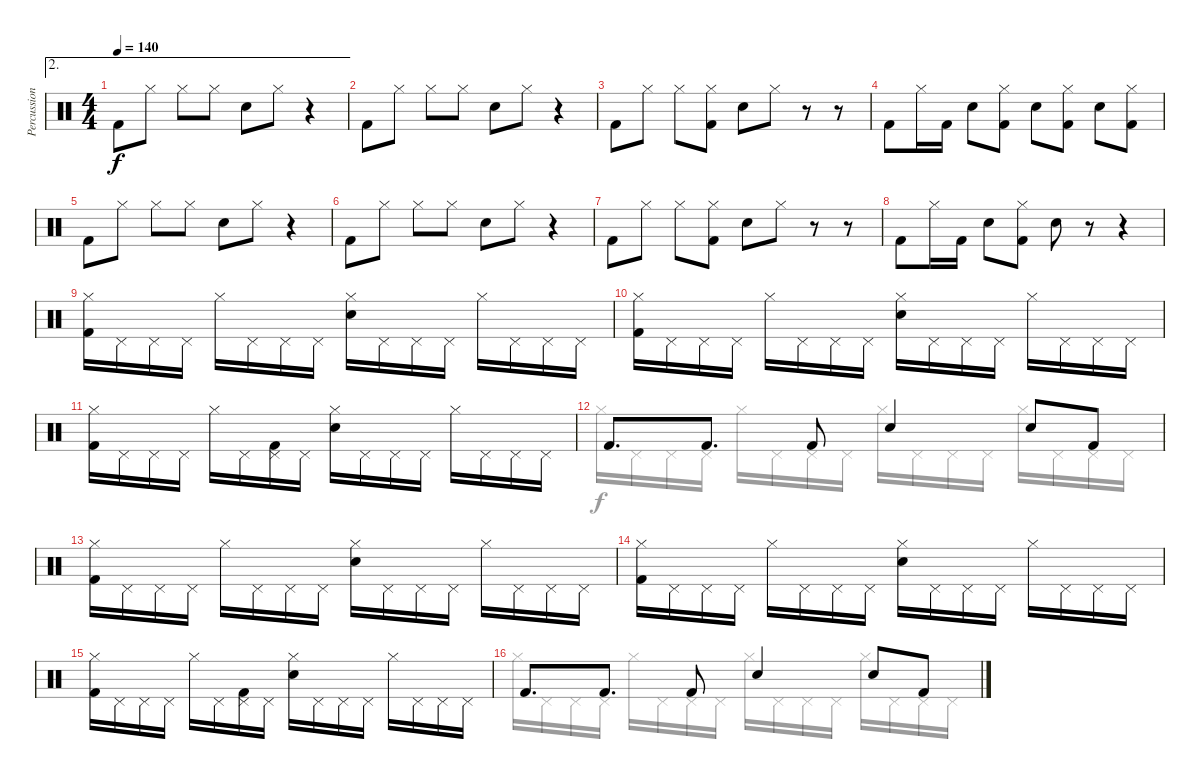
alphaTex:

\track ("Percussion" "Percussion") {instrument percussion}
\staff {score}
\articulation defaults
\voice
\ae 2
\ts (4 4)
\tempo 140
\clef neutral
\ks c "Kick (hit) 2".8{dy f} "Hi-Hat (closed)".8 "Hi-Hat (closed)".8 "Hi-Hat (closed)".8 "Snare (hit) 2".8 "Hi-Hat (closed)".8
r.4 |
"Kick (hit) 2".8 "Hi-Hat (closed)".8 "Hi-Hat (closed)".8 "Hi-Hat (closed)".8 "Snare (hit) 2".8 "Hi-Hat (closed)".8 r.4 |
"Kick (hit) 2".8 "Hi-Hat (closed)".8 "Hi-Hat (closed)".8 ("Hi-Hat (closed)" "Kick (hit) 2").8 "Snare (hit) 2".8 "Hi-Hat (closed)".8 r.8 r.8 |
"Kick (hit) 2".8 "Hi-Hat (closed)".16 "Kick (hit) 2".16 "Snare (hit) 2".8 ("Hi-Hat (closed)" "Kick (hit) 2").8 "Snare (hit) 2".8 ("Hi-Hat (closed)" "Kick (hit) 2").8 "Snare (hit) 2".8 ("Hi-Hat (closed)" "Kick (hit) 2").8 |
"Kick (hit) 2".8 "Hi-Hat (closed)".8 "Hi-Hat (closed)".8 "Hi-Hat (closed)".8 "Snare (hit) 2".8 "Hi-Hat (closed)".8 r.4 |
"Kick (hit) 2".8 "Hi-Hat (closed)".8 "Hi-Hat (closed)".8 "Hi-Hat (closed)".8 "Snare (hit) 2".8 "Hi-Hat (closed)".8 r.4 |
"Kick (hit) 2".8 "Hi-Hat (closed)".8 "Hi-Hat (closed)".8 ("Hi-Hat (closed)" "Kick (hit) 2").8 "Snare (hit) 2".8 "Hi-Hat (closed)".8 r.8 r.8 |
"Kick (hit) 2".8 "Hi-Hat (closed)".16 "Kick (hit) 2".16 "Snare (hit) 2".8 ("Hi-Hat (closed)" "Kick (hit) 2").8 "Snare (hit) 2".8 r.8 r.4 |
("Hi-Hat (closed)" "Kick (hit) 2").16 "Pedal Hi-Hat (hit)".16 "Pedal Hi-Hat (hit)".16 "Pedal Hi-Hat (hit)".16 "Hi-Hat (closed)".16 "Pedal Hi-Hat (hit)".16 "Pedal Hi-Hat (hit)".16 "Pedal Hi-Hat (hit)".16 ("Hi-Hat (closed)" "Snare (hit) 2").16 "Pedal Hi-Hat (hit)".16 "Pedal Hi-Hat (hit)".16 "Pedal Hi-Hat (hit)".16 "Hi-Hat (closed)".16 "Pedal Hi-Hat (hit)".16 "Pedal Hi-Hat (hit)".16 "Pedal Hi-Hat (hit)".16 |
("Hi-Hat (closed)" "Kick (hit) 2").16 "Pedal Hi-Hat (hit)".16 "Pedal Hi-Hat (hit)".16 "Pedal Hi-Hat (hit)".16 "Hi-Hat (closed)".16 "Pedal Hi-Hat (hit)".16 "Pedal Hi-Hat (hit)".16 "Pedal Hi-Hat (hit)".16 ("Hi-Hat (closed)" "Snare (hit) 2").16 "Pedal Hi-Hat (hit)".16 "Pedal Hi-Hat (hit)".16 "Pedal Hi-Hat (hit)".16 "Hi-Hat (closed)".16 "Pedal Hi-Hat (hit)".16 "Pedal Hi-Hat (hit)".16 "Pedal Hi-Hat (hit)".16 |
("Hi-Hat (closed)" "Kick (hit) 2").16 "Pedal Hi-Hat (hit)".16 "Pedal Hi-Hat (hit)".16 "Pedal Hi-Hat (hit)".16 "Hi-Hat (closed)".16 "Pedal Hi-Hat (hit)".16 ("Pedal Hi-Hat (hit)" "Kick (hit) 2").16 "Pedal Hi-Hat (hit)".16 ("Hi-Hat (closed)" "Snare (hit) 2").16 "Pedal Hi-Hat (hit)".16 "Pedal Hi-Hat (hit)".16 "Pedal Hi-Hat (hit)".16 "Hi-Hat (closed)".16 "Pedal Hi-Hat (hit)".16 "Pedal Hi-Hat (hit)".16 "Pedal Hi-Hat (hit)".16 |
"Kick (hit) 2".8{d} "Kick (hit) 2".8{d} "Kick (hit) 2".8 "Snare (hit) 2".4 "Snare (hit) 2".8 "Kick (hit) 2".8 |
("Hi-Hat (closed)" "Kick (hit) 2").16 "Pedal Hi-Hat (hit)".16 "Pedal Hi-Hat (hit)".16 "Pedal Hi-Hat (hit)".16 "Hi-Hat (closed)".16 "Pedal Hi-Hat (hit)".16 "Pedal Hi-Hat (hit)".16 "Pedal Hi-Hat (hit)".16 ("Hi-Hat (closed)" "Snare (hit) 2").16 "Pedal Hi-Hat (hit)".16 "Pedal Hi-Hat (hit)".16 "Pedal Hi-Hat (hit)".16 "Hi-Hat (closed)".16 "Pedal Hi-Hat (hit)".16 "Pedal Hi-Hat (hit)".16 "Pedal Hi-Hat (hit)".16 |
("Hi-Hat (closed)" "Kick (hit) 2").16 "Pedal Hi-Hat (hit)".16 "Pedal Hi-Hat (hit)".16 "Pedal Hi-Hat (hit)".16 "Hi-Hat (closed)".16 "Pedal Hi-Hat (hit)".16 "Pedal Hi-Hat (hit)".16 "Pedal Hi-Hat (hit)".16 ("Hi-Hat (closed)" "Snare (hit) 2").16 "Pedal Hi-Hat (hit)".16 "Pedal Hi-Hat (hit)".16 "Pedal Hi-Hat (hit)".16 "Hi-Hat (closed)".16 "Pedal Hi-Hat (hit)".16 "Pedal Hi-Hat (hit)".16 "Pedal Hi-Hat (hit)".16 |
("Hi-Hat (closed)" "Kick (hit) 2").16 "Pedal Hi-Hat (hit)".16 "Pedal Hi-Hat (hit)".16 "Pedal Hi-Hat (hit)".16 "Hi-Hat (closed)".16 "Pedal Hi-Hat (hit)".16 ("Pedal Hi-Hat (hit)" "Kick (hit) 2").16 "Pedal Hi-Hat (hit)".16 ("Hi-Hat (closed)" "Snare (hit) 2").16 "Pedal Hi-Hat (hit)".16 "Pedal Hi-Hat (hit)".16 "Pedal Hi-Hat (hit)".16 "Hi-Hat (closed)".16 "Pedal Hi-Hat (hit)".16 "Pedal Hi-Hat (hit)".16 "Pedal Hi-Hat (hit)".16 |
"Kick (hit) 2".8{d} "Kick (hit) 2".8{d} "Kick (hit) 2".8 "Snare (hit) 2".4 "Snare (hit) 2".8 "Kick (hit) 2".8
\voice
\clef neutral
\ottava regular
\simile none
\ks c
|
|
|
|
|
|
|
|
|
|
|
"Hi-Hat (closed)".16 "Pedal Hi-Hat (hit)".16 "Pedal Hi-Hat (hit)".16 "Pedal Hi-Hat (hit)".16 "Hi-Hat (closed)".16 "Pedal Hi-Hat (hit)".16 "Pedal Hi-Hat (hit)".16 "Pedal Hi-Hat (hit)".16 "Hi-Hat (closed)".16 "Pedal Hi-Hat (hit)".16 "Pedal Hi-Hat (hit)".16 "Pedal Hi-Hat (hit)".16 "Hi-Hat (closed)".16 "Pedal Hi-Hat (hit)".16 "Pedal Hi-Hat (hit)".16 "Pedal Hi-Hat (hit)".16 |
|
|
|
"Hi-Hat (closed)".16 "Pedal Hi-Hat (hit)".16 "Pedal Hi-Hat (hit)".16 "Pedal Hi-Hat (hit)".16 "Hi-Hat (closed)".16 "Pedal Hi-Hat (hit)".16 "Pedal Hi-Hat (hit)".16 "Pedal Hi-Hat (hit)".16 "Hi-Hat (closed)".16 "Pedal Hi-Hat (hit)".16 "Pedal Hi-Hat (hit)".16 "Pedal Hi-Hat (hit)".16 "Hi-Hat (closed)".16 "Pedal Hi-Hat (hit)".16 "Pedal Hi-Hat (hit)".16 "Pedal Hi-Hat (hit)".16
